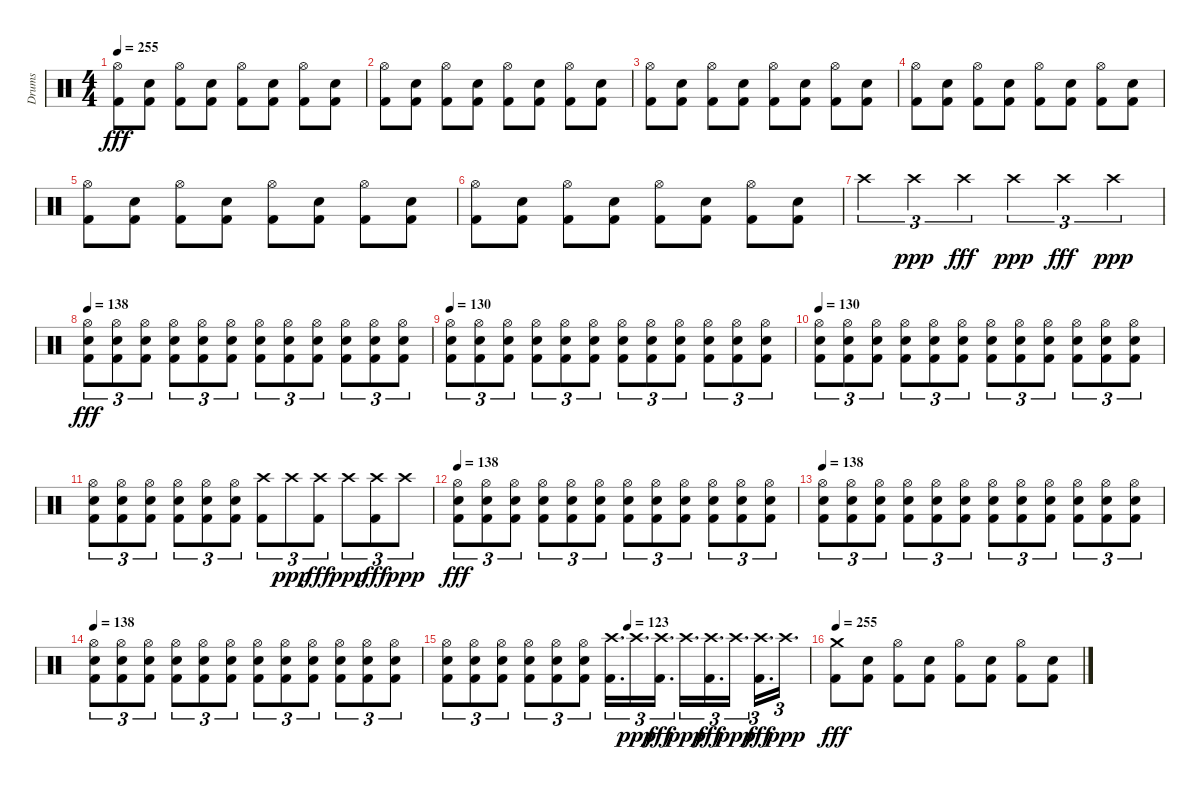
\track ("Drums" "Drums") {instrument percussion}
\staff {score}
\articulation defaults
\ts (4 4)
\tempo 255
\clef neutral
\ks c
("Hi-Hat (open)" "Kick (hit) 2").8{dy fff} ("Electric Snare (hit)" "Kick (hit) 2").8 ("Hi-Hat (open)" "Kick (hit) 2").8 ("Electric Snare (hit)" "Kick (hit) 2").8 ("Hi-Hat (open)" "Kick (hit) 2").8 ("Electric Snare (hit)" "Kick (hit) 2").8 ("Hi-Hat (open)" "Kick (hit) 2").8 ("Electric Snare (hit)" "Kick (hit) 2").8 |
("Hi-Hat (open)" "Kick (hit) 2").8 ("Electric Snare (hit)" "Kick (hit) 2").8 ("Hi-Hat (open)" "Kick (hit) 2").8 ("Electric Snare (hit)" "Kick (hit) 2").8 ("Hi-Hat (open)" "Kick (hit) 2").8 ("Electric Snare (hit)" "Kick (hit) 2").8 ("Hi-Hat (open)" "Kick (hit) 2").8 ("Electric Snare (hit)" "Kick (hit) 2").8 |
("Hi-Hat (open)" "Kick (hit) 2").8 ("Electric Snare (hit)" "Kick (hit) 2").8 ("Hi-Hat (open)" "Kick (hit) 2").8 ("Electric Snare (hit)" "Kick (hit) 2").8 ("Hi-Hat (open)" "Kick (hit) 2").8 ("Electric Snare (hit)" "Kick (hit) 2").8 ("Hi-Hat (open)" "Kick (hit) 2").8 ("Electric Snare (hit)" "Kick (hit) 2").8 |
("Hi-Hat (open)" "Kick (hit) 2").8 ("Electric Snare (hit)" "Kick (hit) 2").8 ("Hi-Hat (open)" "Kick (hit) 2").8 ("Electric Snare (hit)" "Kick (hit) 2").8 ("Hi-Hat (open)" "Kick (hit) 2").8 ("Electric Snare (hit)" "Kick (hit) 2").8 ("Hi-Hat (open)" "Kick (hit) 2").8 ("Electric Snare (hit)" "Kick (hit) 2").8 |
("Hi-Hat (open)" "Kick (hit) 2").8 ("Electric Snare (hit)" "Kick (hit) 2").8 ("Hi-Hat (open)" "Kick (hit) 2").8 ("Electric Snare (hit)" "Kick (hit) 2").8 ("Hi-Hat (open)" "Kick (hit) 2").8 ("Electric Snare (hit)" "Kick (hit) 2").8 ("Hi-Hat (open)" "Kick (hit) 2").8 ("Electric Snare (hit)" "Kick (hit) 2").8 |
("Hi-Hat (open)" "Kick (hit) 2").8 ("Electric Snare (hit)" "Kick (hit) 2").8 ("Hi-Hat (open)" "Kick (hit) 2").8 ("Electric Snare (hit)" "Kick (hit) 2").8 ("Hi-Hat (open)" "Kick (hit) 2").8 ("Electric Snare (hit)" "Kick (hit) 2").8 ("Hi-Hat (open)" "Kick (hit) 2").8 ("Electric Snare (hit)" "Kick (hit) 2").8 |
"Crash high (hit)".4{tu (3 2)} "Crash high (hit)".4{tu (3 2) dy ppp} "Crash high (hit)".4{tu (3 2) dy fff} "Crash high (hit)".4{tu (3 2) dy ppp} "Crash high (hit)".4{tu (3 2) dy fff} "Crash high (hit)".4{tu (3 2) dy ppp} |
\tempo 138
("Hi-Hat (open)" "Electric Snare (hit)" "Kick (hit) 2").8{tu (3 2) dy fff} ("Hi-Hat (open)" "Electric Snare (hit)" "Kick (hit) 2").8{tu (3 2)} ("Hi-Hat (open)" "Electric Snare (hit)" "Kick (hit) 2").8{tu (3 2)} ("Hi-Hat (open)" "Electric Snare (hit)" "Kick (hit) 2").8{tu (3 2)} ("Hi-Hat (open)" "Electric Snare (hit)" "Kick (hit) 2").8{tu (3 2)} ("Hi-Hat (open)" "Electric Snare (hit)" "Kick (hit) 2").8{tu (3 2)} ("Hi-Hat (open)" "Electric Snare (hit)" "Kick (hit) 2").8{tu (3 2)} ("Hi-Hat (open)" "Electric Snare (hit)" "Kick (hit) 2").8{tu (3 2)} ("Hi-Hat (open)" "Electric Snare (hit)" "Kick (hit) 2").8{tu (3 2)} ("Hi-Hat (open)" "Electric Snare (hit)" "Kick (hit) 2").8{tu (3 2)} ("Hi-Hat (open)" "Electric Snare (hit)" "Kick (hit) 2").8{tu (3 2)} ("Hi-Hat (open)" "Electric Snare (hit)" "Kick (hit) 2").8{tu (3 2)} |
\tempo 130
("Hi-Hat (open)" "Electric Snare (hit)" "Kick (hit) 2").8{tu (3 2)} ("Hi-Hat (open)" "Electric Snare (hit)" "Kick (hit) 2").8{tu (3 2)} ("Hi-Hat (open)" "Electric Snare (hit)" "Kick (hit) 2").8{tu (3 2)} ("Hi-Hat (open)" "Electric Snare (hit)" "Kick (hit) 2").8{tu (3 2)} ("Hi-Hat (open)" "Electric Snare (hit)" "Kick (hit) 2").8{tu (3 2)} ("Hi-Hat (open)" "Electric Snare (hit)" "Kick (hit) 2").8{tu (3 2)} ("Hi-Hat (open)" "Electric Snare (hit)" "Kick (hit) 2").8{tu (3 2)} ("Hi-Hat (open)" "Electric Snare (hit)" "Kick (hit) 2").8{tu (3 2)} ("Hi-Hat (open)" "Electric Snare (hit)" "Kick (hit) 2").8{tu (3 2)} ("Hi-Hat (open)" "Electric Snare (hit)" "Kick (hit) 2").8{tu (3 2)} ("Hi-Hat (open)" "Electric Snare (hit)" "Kick (hit) 2").8{tu (3 2)} ("Hi-Hat (open)" "Electric Snare (hit)" "Kick (hit) 2").8{tu (3 2)} |
\tempo 130
("Hi-Hat (open)" "Electric Snare (hit)" "Kick (hit) 2").8{tu (3 2)} ("Hi-Hat (open)" "Electric Snare (hit)" "Kick (hit) 2").8{tu (3 2)} ("Hi-Hat (open)" "Electric Snare (hit)" "Kick (hit) 2").8{tu (3 2)} ("Hi-Hat (open)" "Electric Snare (hit)" "Kick (hit) 2").8{tu (3 2)} ("Hi-Hat (open)" "Electric Snare (hit)" "Kick (hit) 2").8{tu (3 2)} ("Hi-Hat (open)" "Electric Snare (hit)" "Kick (hit) 2").8{tu (3 2)} ("Hi-Hat (open)" "Electric Snare (hit)" "Kick (hit) 2").8{tu (3 2)} ("Hi-Hat (open)" "Electric Snare (hit)" "Kick (hit) 2").8{tu (3 2)} ("Hi-Hat (open)" "Electric Snare (hit)" "Kick (hit) 2").8{tu (3 2)} ("Hi-Hat (open)" "Electric Snare (hit)" "Kick (hit) 2").8{tu (3 2)} ("Hi-Hat (open)" "Electric Snare (hit)" "Kick (hit) 2").8{tu (3 2)} ("Hi-Hat (open)" "Electric Snare (hit)" "Kick (hit) 2").8{tu (3 2)} |
("Hi-Hat (open)" "Electric Snare (hit)" "Kick (hit) 2").8{tu (3 2)} ("Hi-Hat (open)" "Electric Snare (hit)" "Kick (hit) 2").8{tu (3 2)} ("Hi-Hat (open)" "Electric Snare (hit)" "Kick (hit) 2").8{tu (3 2)} ("Hi-Hat (open)" "Electric Snare (hit)" "Kick (hit) 2").8{tu (3 2)} ("Hi-Hat (open)" "Electric Snare (hit)" "Kick (hit) 2").8{tu (3 2)} ("Hi-Hat (open)" "Electric Snare (hit)" "Kick (hit) 2").8{tu (3 2)} ("Crash high (hit)" "Kick (hit) 2").8{tu (3 2)} "Crash high (hit)".8{tu (3 2) dy ppp} ("Crash high (hit)" "Kick (hit) 2").8{tu (3 2) dy fff} "Crash high (hit)".8{tu (3 2) dy ppp} ("Crash high (hit)" "Kick (hit) 2").8{tu (3 2) dy fff} "Crash high (hit)".8{tu (3 2) dy ppp} |
\tempo 138
("Hi-Hat (open)" "Electric Snare (hit)" "Kick (hit) 2").8{tu (3 2) dy fff} ("Hi-Hat (open)" "Electric Snare (hit)" "Kick (hit) 2").8{tu (3 2)} ("Hi-Hat (open)" "Electric Snare (hit)" "Kick (hit) 2").8{tu (3 2)} ("Hi-Hat (open)" "Electric Snare (hit)" "Kick (hit) 2").8{tu (3 2)} ("Hi-Hat (open)" "Electric Snare (hit)" "Kick (hit) 2").8{tu (3 2)} ("Hi-Hat (open)" "Electric Snare (hit)" "Kick (hit) 2").8{tu (3 2)} ("Hi-Hat (open)" "Electric Snare (hit)" "Kick (hit) 2").8{tu (3 2)} ("Hi-Hat (open)" "Electric Snare (hit)" "Kick (hit) 2").8{tu (3 2)} ("Hi-Hat (open)" "Electric Snare (hit)" "Kick (hit) 2").8{tu (3 2)} ("Hi-Hat (open)" "Electric Snare (hit)" "Kick (hit) 2").8{tu (3 2)} ("Hi-Hat (open)" "Electric Snare (hit)" "Kick (hit) 2").8{tu (3 2)} ("Hi-Hat (open)" "Electric Snare (hit)" "Kick (hit) 2").8{tu (3 2)} |
\tempo 138
("Hi-Hat (open)" "Electric Snare (hit)" "Kick (hit) 2").8{tu (3 2)} ("Hi-Hat (open)" "Electric Snare (hit)" "Kick (hit) 2").8{tu (3 2)} ("Hi-Hat (open)" "Electric Snare (hit)" "Kick (hit) 2").8{tu (3 2)} ("Hi-Hat (open)" "Electric Snare (hit)" "Kick (hit) 2").8{tu (3 2)} ("Hi-Hat (open)" "Electric Snare (hit)" "Kick (hit) 2").8{tu (3 2)} ("Hi-Hat (open)" "Electric Snare (hit)" "Kick (hit) 2").8{tu (3 2)} ("Hi-Hat (open)" "Electric Snare (hit)" "Kick (hit) 2").8{tu (3 2)} ("Hi-Hat (open)" "Electric Snare (hit)" "Kick (hit) 2").8{tu (3 2)} ("Hi-Hat (open)" "Electric Snare (hit)" "Kick (hit) 2").8{tu (3 2)} ("Hi-Hat (open)" "Electric Snare (hit)" "Kick (hit) 2").8{tu (3 2)} ("Hi-Hat (open)" "Electric Snare (hit)" "Kick (hit) 2").8{tu (3 2)} ("Hi-Hat (open)" "Electric Snare (hit)" "Kick (hit) 2").8{tu (3 2)} |
\tempo 138
("Hi-Hat (open)" "Electric Snare (hit)" "Kick (hit) 2").8{tu (3 2)} ("Hi-Hat (open)" "Electric Snare (hit)" "Kick (hit) 2").8{tu (3 2)} ("Hi-Hat (open)" "Electric Snare (hit)" "Kick (hit) 2").8{tu (3 2)} ("Hi-Hat (open)" "Electric Snare (hit)" "Kick (hit) 2").8{tu (3 2)} ("Hi-Hat (open)" "Electric Snare (hit)" "Kick (hit) 2").8{tu (3 2)} ("Hi-Hat (open)" "Electric Snare (hit)" "Kick (hit) 2").8{tu (3 2)} ("Hi-Hat (open)" "Electric Snare (hit)" "Kick (hit) 2").8{tu (3 2)} ("Hi-Hat (open)" "Electric Snare (hit)" "Kick (hit) 2").8{tu (3 2)} ("Hi-Hat (open)" "Electric Snare (hit)" "Kick (hit) 2").8{tu (3 2)} ("Hi-Hat (open)" "Electric Snare (hit)" "Kick (hit) 2").8{tu (3 2)} ("Hi-Hat (open)" "Electric Snare (hit)" "Kick (hit) 2").8{tu (3 2)} ("Hi-Hat (open)" "Electric Snare (hit)" "Kick (hit) 2").8{tu (3 2)} |
\tempo (123 0.5)
("Hi-Hat (open)" "Electric Snare (hit)" "Kick (hit) 2").8{tu (3 2)} ("Hi-Hat (open)" "Electric Snare (hit)" "Kick (hit) 2").8{tu (3 2)} ("Hi-Hat (open)" "Electric Snare (hit)" "Kick (hit) 2").8{tu (3 2)} ("Hi-Hat (open)" "Electric Snare (hit)" "Kick (hit) 2").8{tu (3 2)} ("Hi-Hat (open)" "Electric Snare (hit)" "Kick (hit) 2").8{tu (3 2)} ("Hi-Hat (open)" "Electric Snare (hit)" "Kick (hit) 2").8{tu (3 2)} ("Crash high (hit)" "Kick (hit) 2").16{d tu (3 2)} "Crash high (hit)".16{d tu (3 2) dy ppp} ("Crash high (hit)" "Kick (hit) 2").16{d tu (3 2) dy fff} "Crash high (hit)".16{d tu (3 2) dy ppp} ("Crash high (hit)" "Kick (hit) 2").16{d tu (3 2) dy fff} "Crash high (hit)".16{d tu (3 2) dy ppp} ("Crash high (hit)" "Kick (hit) 2").16{d tu (3 2) dy fff} "Crash high (hit)".16{d tu (3 2) dy ppp} |
\tempo 255
("Crash medium (hit)" "Kick (hit) 2").8{dy fff} ("Electric Snare (hit)" "Kick (hit) 2").8 ("Hi-Hat (open)" "Kick (hit) 2").8 ("Electric Snare (hit)" "Kick (hit) 2").8 ("Hi-Hat (open)" "Kick (hit) 2").8 ("Electric Snare (hit)" "Kick (hit) 2").8 ("Hi-Hat (open)" "Kick (hit) 2").8 ("Electric Snare (hit)" "Kick (hit) 2").8
